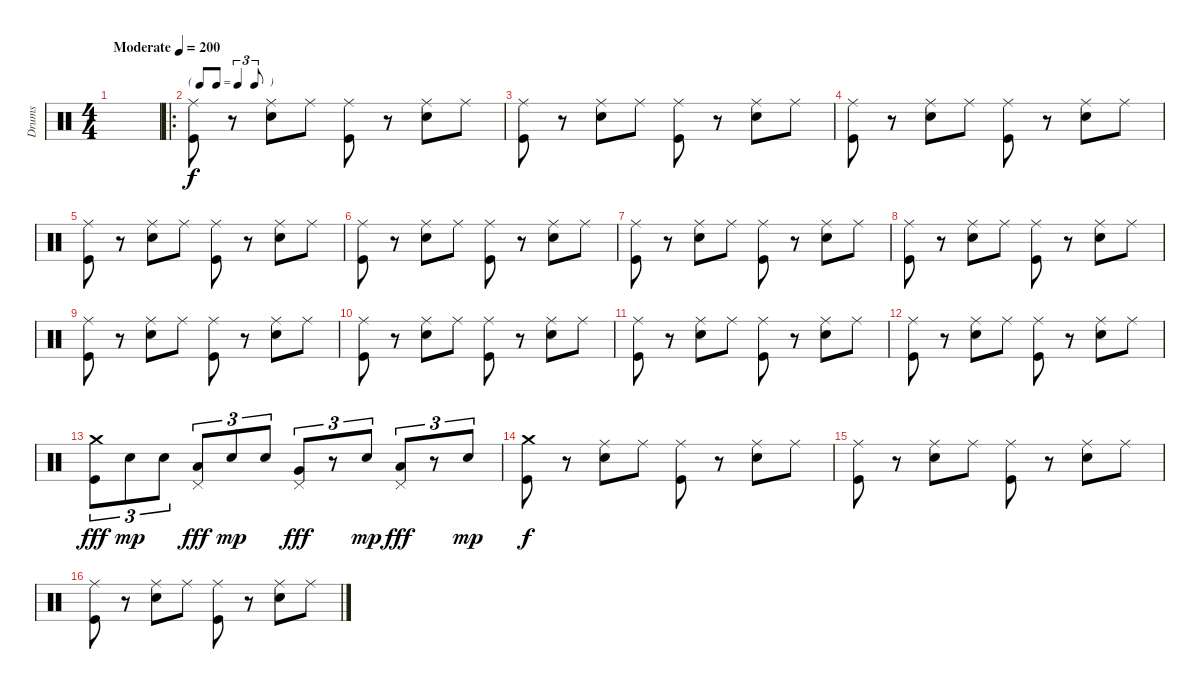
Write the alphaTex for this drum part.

\track ("Drums" "Drums") {instrument percussion}
\staff {score}
\articulation defaults
\ts (4 4)
\tempo (200 "Moderate")
\clef neutral
\ks c
|
\ro
\tf triplet8th
("Ride (middle)" "Kick (hit)").8 r.8 ("Ride (middle)" "Electric Snare (hit)").8 "Ride (middle)".8 ("Ride (middle)" "Kick (hit)").8 r.8 ("Ride (middle)" "Electric Snare (hit)").8 "Ride (middle)".8 |
("Ride (middle)" "Kick (hit)").8 r.8 ("Ride (middle)" "Electric Snare (hit)").8 "Ride (middle)".8 ("Ride (middle)" "Kick (hit)").8 r.8 ("Ride (middle)" "Electric Snare (hit)").8 "Ride (middle)".8 |
("Ride (middle)" "Kick (hit)").8 r.8 ("Ride (middle)" "Electric Snare (hit)").8 "Ride (middle)".8 ("Ride (middle)" "Kick (hit)").8 r.8 ("Ride (middle)" "Electric Snare (hit)").8 "Ride (middle)".8 |
("Ride (middle)" "Kick (hit)").8 r.8 ("Ride (middle)" "Electric Snare (hit)").8 "Ride (middle)".8 ("Ride (middle)" "Kick (hit)").8 r.8 ("Ride (middle)" "Electric Snare (hit)").8 "Ride (middle)".8 |
("Ride (middle)" "Kick (hit)").8 r.8 ("Ride (middle)" "Electric Snare (hit)").8 "Ride (middle)".8 ("Ride (middle)" "Kick (hit)").8 r.8 ("Ride (middle)" "Electric Snare (hit)").8 "Ride (middle)".8 |
("Ride (middle)" "Kick (hit)").8 r.8 ("Ride (middle)" "Electric Snare (hit)").8 "Ride (middle)".8 ("Ride (middle)" "Kick (hit)").8 r.8 ("Ride (middle)" "Electric Snare (hit)").8 "Ride (middle)".8 |
("Ride (middle)" "Kick (hit)").8 r.8 ("Ride (middle)" "Electric Snare (hit)").8 "Ride (middle)".8 ("Ride (middle)" "Kick (hit)").8 r.8 ("Ride (middle)" "Electric Snare (hit)").8 "Ride (middle)".8 |
("Ride (middle)" "Kick (hit)").8 r.8 ("Ride (middle)" "Electric Snare (hit)").8 "Ride (middle)".8 ("Ride (middle)" "Kick (hit)").8 r.8 ("Ride (middle)" "Electric Snare (hit)").8 "Ride (middle)".8 |
("Ride (middle)" "Kick (hit)").8 r.8 ("Ride (middle)" "Electric Snare (hit)").8 "Ride (middle)".8 ("Ride (middle)" "Kick (hit)").8 r.8 ("Ride (middle)" "Electric Snare (hit)").8 "Ride (middle)".8 |
("Ride (middle)" "Kick (hit)").8 r.8 ("Ride (middle)" "Electric Snare (hit)").8 "Ride (middle)".8 ("Ride (middle)" "Kick (hit)").8 r.8 ("Ride (middle)" "Electric Snare (hit)").8 "Ride (middle)".8 |
("Ride (middle)" "Kick (hit)").8 r.8 ("Ride (middle)" "Electric Snare (hit)").8 "Ride (middle)".8 ("Ride (middle)" "Kick (hit)").8 r.8 ("Ride (middle)" "Electric Snare (hit)").8 "Ride (middle)".8 |
("Crash medium (hit)" "Kick (hit)").8{tu (3 2) dy fff} "Electric Snare (hit)".8{tu (3 2) dy mp} "Electric Snare (hit)".8{tu (3 2)} ("Pedal Hi-Hat (hit)" "Low Tom (hit)").8{tu (3 2) dy fff} "Electric Snare (hit)".8{tu (3 2) dy mp} "Electric Snare (hit)".8{tu (3 2)} ("Pedal Hi-Hat (hit)" "Very Low Tom (hit)").8{tu (3 2) dy fff} r.8{tu (3 2)} "Electric Snare (hit)".8{tu (3 2) dy mp} ("Pedal Hi-Hat (hit)" "Low Floor Tom (hit)").8{tu (3 2) dy fff} r.8{tu (3 2)} "Electric Snare (hit)".8{tu (3 2) dy mp} |
("Crash medium (hit)" "Kick (hit)").8{dy f} r.8 ("Ride (middle)" "Electric Snare (hit)").8 "Ride (middle)".8 ("Ride (middle)" "Kick (hit)").8 r.8 ("Ride (middle)" "Electric Snare (hit)").8 "Ride (middle)".8 |
("Ride (middle)" "Kick (hit)").8 r.8 ("Ride (middle)" "Electric Snare (hit)").8 "Ride (middle)".8 ("Ride (middle)" "Kick (hit)").8 r.8 ("Ride (middle)" "Electric Snare (hit)").8 "Ride (middle)".8 |
("Ride (middle)" "Kick (hit)").8 r.8 ("Ride (middle)" "Electric Snare (hit)").8 "Ride (middle)".8 ("Ride (middle)" "Kick (hit)").8 r.8 ("Ride (middle)" "Electric Snare (hit)").8 "Ride (middle)".8
